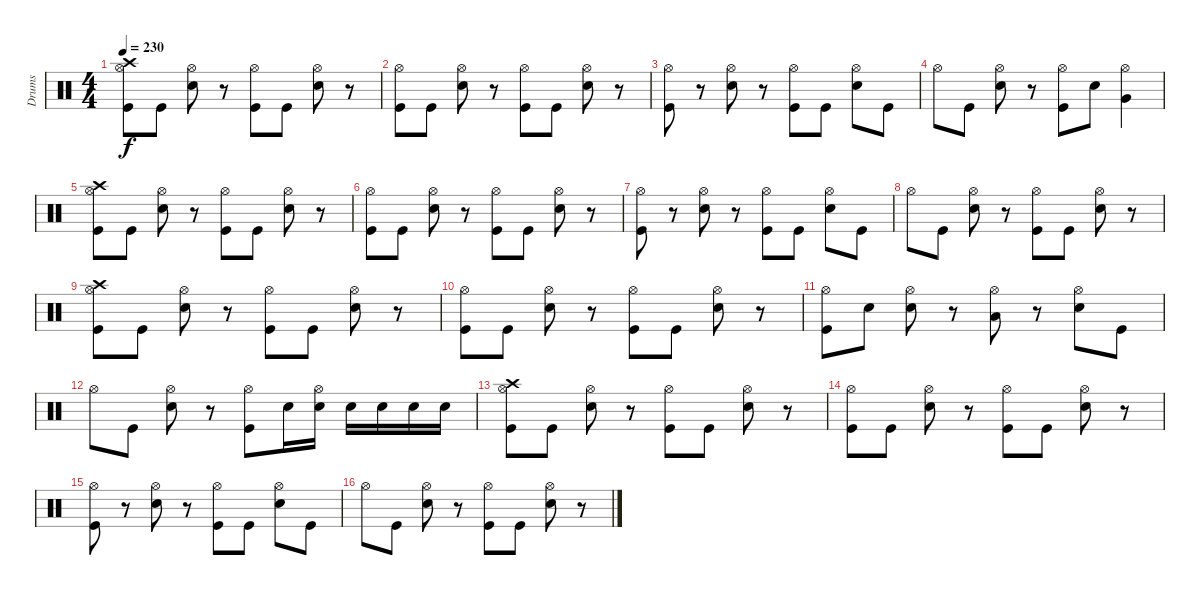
\track ("Drums" "Drums") {instrument percussion}
\staff {score}
\articulation defaults
\ts (4 4)
\tempo 230
\clef neutral
\ks c
("Crash high (hit)" "Kick (hit)" "Hi-Hat (open)").8{dy f} "Kick (hit)".8 ("Electric Snare (hit)" "Hi-Hat (open)").8 r.8 ("Kick (hit)" "Hi-Hat (open)").8 "Kick (hit)".8 ("Electric Snare (hit)" "Hi-Hat (open)").8 r.8 |
("Kick (hit)" "Hi-Hat (open)").8 "Kick (hit)".8 ("Electric Snare (hit)" "Hi-Hat (open)").8 r.8 ("Kick (hit)" "Hi-Hat (open)").8 "Kick (hit)".8 ("Electric Snare (hit)" "Hi-Hat (open)").8 r.8 |
("Kick (hit)" "Hi-Hat (open)").8 r.8 ("Electric Snare (hit)" "Hi-Hat (open)").8 r.8 ("Kick (hit)" "Hi-Hat (open)").8 "Kick (hit)".8 ("Electric Snare (hit)" "Hi-Hat (open)").8 "Kick (hit)".8 |
"Hi-Hat (open)".8 "Kick (hit)".8 ("Electric Snare (hit)" "Hi-Hat (open)").8 r.8 ("Kick (hit)" "Hi-Hat (open)").8 "Electric Snare (hit)".8 ("Very Low Tom (hit)" "Hi-Hat (open)").4 |
("Crash high (hit)" "Kick (hit)" "Hi-Hat (open)").8 "Kick (hit)".8 ("Electric Snare (hit)" "Hi-Hat (open)").8 r.8 ("Kick (hit)" "Hi-Hat (open)").8 "Kick (hit)".8 ("Electric Snare (hit)" "Hi-Hat (open)").8 r.8 |
("Kick (hit)" "Hi-Hat (open)").8 "Kick (hit)".8 ("Electric Snare (hit)" "Hi-Hat (open)").8 r.8 ("Kick (hit)" "Hi-Hat (open)").8 "Kick (hit)".8 ("Electric Snare (hit)" "Hi-Hat (open)").8 r.8 |
("Kick (hit)" "Hi-Hat (open)").8 r.8 ("Electric Snare (hit)" "Hi-Hat (open)").8 r.8 ("Kick (hit)" "Hi-Hat (open)").8 "Kick (hit)".8 ("Electric Snare (hit)" "Hi-Hat (open)").8 "Kick (hit)".8 |
"Hi-Hat (open)".8 "Kick (hit)".8 ("Electric Snare (hit)" "Hi-Hat (open)").8 r.8 ("Kick (hit)" "Hi-Hat (open)").8 "Kick (hit)".8 ("Electric Snare (hit)" "Hi-Hat (open)").8 r.8 |
("Crash high (hit)" "Kick (hit)" "Hi-Hat (open)").8 "Kick (hit)".8 ("Electric Snare (hit)" "Hi-Hat (open)").8 r.8 ("Kick (hit)" "Hi-Hat (open)").8 "Kick (hit)".8 ("Electric Snare (hit)" "Hi-Hat (open)").8 r.8 |
("Kick (hit)" "Hi-Hat (open)").8 "Kick (hit)".8 ("Electric Snare (hit)" "Hi-Hat (open)").8 r.8 ("Kick (hit)" "Hi-Hat (open)").8 "Kick (hit)".8 ("Electric Snare (hit)" "Hi-Hat (open)").8 r.8 |
("Kick (hit)" "Hi-Hat (open)").8 "Electric Snare (hit)".8 ("Electric Snare (hit)" "Hi-Hat (open)").8 r.8 ("Low Floor Tom (hit)" "Hi-Hat (open)").8 r.8 ("Electric Snare (hit)" "Hi-Hat (open)").8 "Kick (hit)".8 |
"Hi-Hat (open)".8 "Kick (hit)".8 ("Electric Snare (hit)" "Hi-Hat (open)").8 r.8 ("Kick (hit)" "Hi-Hat (open)").8 "Electric Snare (hit)".16 ("Electric Snare (hit)" "Hi-Hat (open)").16 "Electric Snare (hit)".16 "Electric Snare (hit)".16 "Electric Snare (hit)".16 "Electric Snare (hit)".16 |
("Crash high (hit)" "Kick (hit)" "Hi-Hat (open)").8 "Kick (hit)".8 ("Electric Snare (hit)" "Hi-Hat (open)").8 r.8 ("Kick (hit)" "Hi-Hat (open)").8 "Kick (hit)".8 ("Electric Snare (hit)" "Hi-Hat (open)").8 r.8 |
("Kick (hit)" "Hi-Hat (open)").8 "Kick (hit)".8 ("Electric Snare (hit)" "Hi-Hat (open)").8 r.8 ("Kick (hit)" "Hi-Hat (open)").8 "Kick (hit)".8 ("Electric Snare (hit)" "Hi-Hat (open)").8 r.8 |
("Kick (hit)" "Hi-Hat (open)").8 r.8 ("Electric Snare (hit)" "Hi-Hat (open)").8 r.8 ("Kick (hit)" "Hi-Hat (open)").8 "Kick (hit)".8 ("Electric Snare (hit)" "Hi-Hat (open)").8 "Kick (hit)".8 |
"Hi-Hat (open)".8 "Kick (hit)".8 ("Electric Snare (hit)" "Hi-Hat (open)").8 r.8 ("Kick (hit)" "Hi-Hat (open)").8 "Kick (hit)".8 ("Electric Snare (hit)" "Hi-Hat (open)").8 r.8
